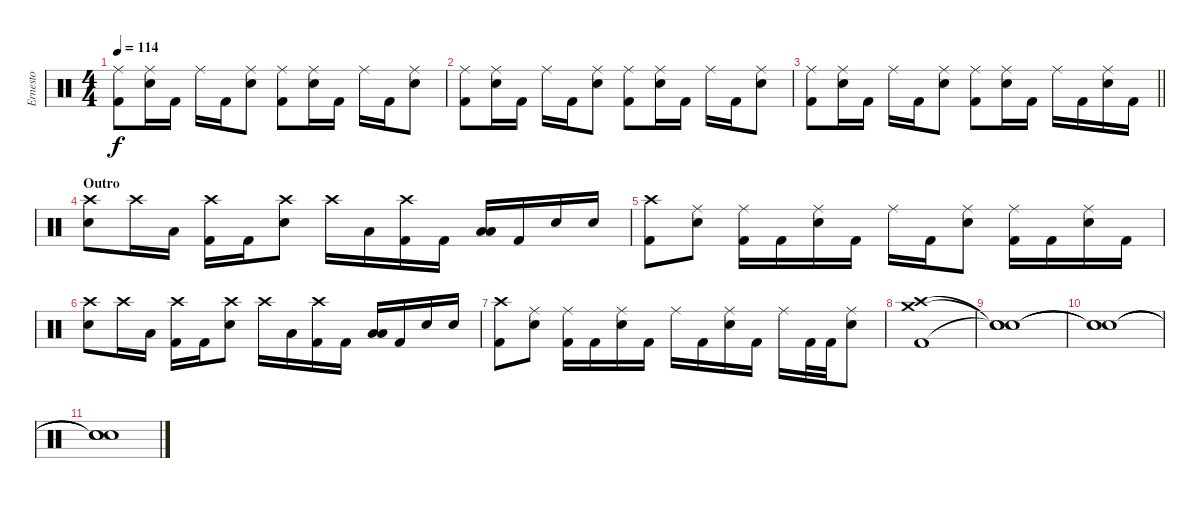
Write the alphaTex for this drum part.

\track ("Ernesto" "Ernesto") {instrument percussion}
\staff
\articulation defaults
\ts (4 4)
\tempo 114
\clef neutral
\ks c
("Ride (middle)" "Kick (hit) 2").8{dy f} ("Ride (middle)" "Electric Snare (hit)").16 "Kick (hit) 2".16 "Ride (middle)".16 "Kick (hit) 2".16 ("Ride (middle)" "Electric Snare (hit)").8 ("Ride (middle)" "Kick (hit) 2").8 ("Ride (middle)" "Electric Snare (hit)").16 "Kick (hit) 2".16 "Ride (middle)".16 "Kick (hit) 2".16 ("Ride (middle)" "Electric Snare (hit)").8 |
("Ride (middle)" "Kick (hit) 2").8 ("Ride (middle)" "Electric Snare (hit)").16 "Kick (hit) 2".16 "Ride (middle)".16 "Kick (hit) 2".16 ("Ride (middle)" "Electric Snare (hit)").8 ("Ride (middle)" "Kick (hit) 2").8 ("Ride (middle)" "Electric Snare (hit)").16 "Kick (hit) 2".16 "Ride (middle)".16 "Kick (hit) 2".16 ("Ride (middle)" "Electric Snare (hit)").8 |
\barLineRight lightlight
("Ride (middle)" "Kick (hit) 2").8 ("Ride (middle)" "Electric Snare (hit)").16 "Kick (hit) 2".16 "Ride (middle)".16 "Kick (hit) 2".16 ("Ride (middle)" "Electric Snare (hit)").8 ("Ride (middle)" "Kick (hit) 2").8 ("Ride (middle)" "Electric Snare (hit)").16 "Kick (hit) 2".16 "Ride (middle)".16 "Kick (hit) 2".16 ("Ride (middle)" "Electric Snare (hit)").16 "Kick (hit) 2".16 |
\section ("" "Outro")
("Crash high (hit)" "Electric Snare (hit)").8 "Crash high (hit)".16 "Low Tom (hit)".16 ("Crash high (hit)" "Kick (hit) 2").16 "Kick (hit) 2".16 ("Crash high (hit)" "Electric Snare (hit)").8 "Crash high (hit)".16 "Low Tom (hit)".16 ("Crash high (hit)" "Kick (hit) 2").16 "Kick (hit) 2".16 ("Low Tom (hit)" "Low Floor Tom (hit)").16 "Kick (hit) 2".16 "Electric Snare (hit)".16 "Electric Snare (hit)".16 |
("Crash high (hit)" "Kick (hit) 2").8 ("Ride (middle)" "Electric Snare (hit)").8 ("Ride (middle)" "Kick (hit) 2").16 "Kick (hit) 2".16 ("Ride (middle)" "Electric Snare (hit)").16 "Kick (hit) 2".16 "Ride (middle)".16 "Kick (hit) 2".16 ("Ride (middle)" "Electric Snare (hit)").8 ("Ride (middle)" "Kick (hit) 2").16 "Kick (hit) 2".16 ("Ride (middle)" "Electric Snare (hit)").16 "Kick (hit) 2".16 |
("Crash high (hit)" "Electric Snare (hit)").8 "Crash high (hit)".16 "Low Tom (hit)".16 ("Crash high (hit)" "Kick (hit) 2").16 "Kick (hit) 2".16 ("Crash high (hit)" "Electric Snare (hit)").8 "Crash high (hit)".16 "Low Tom (hit)".16 ("Crash high (hit)" "Kick (hit) 2").16 "Kick (hit) 2".16 ("Low Tom (hit)" "Low Floor Tom (hit)").16 "Kick (hit) 2".16 "Electric Snare (hit)".16 "Electric Snare (hit)".16 |
("Crash high (hit)" "Kick (hit) 2").8 ("Ride (middle)" "Electric Snare (hit)").8 ("Ride (middle)" "Kick (hit) 2").16 "Kick (hit) 2".16 ("Ride (middle)" "Electric Snare (hit)").16 "Kick (hit) 2".16 "Ride (middle)".16 "Kick (hit) 2".16 ("Ride (middle)" "Electric Snare (hit)").16 "Kick (hit) 2".16 "Ride (middle)".16 "Kick (hit) 2".32 "Kick (hit) 2".32 ("Ride (middle)" "Electric Snare (hit)").8 |
("Crash medium (hit)" "Crash high (hit)" "Kick (hit) 2").1 |
("Snare (hit)"{t} "Snare (hit)"{t} "Snare (hit)"{t}).1 |
("Snare (hit)"{t} "Snare (hit)"{t} "Snare (hit)"{t}).1 |
("Snare (hit)"{t} "Snare (hit)"{t} "Snare (hit)"{t}).1
